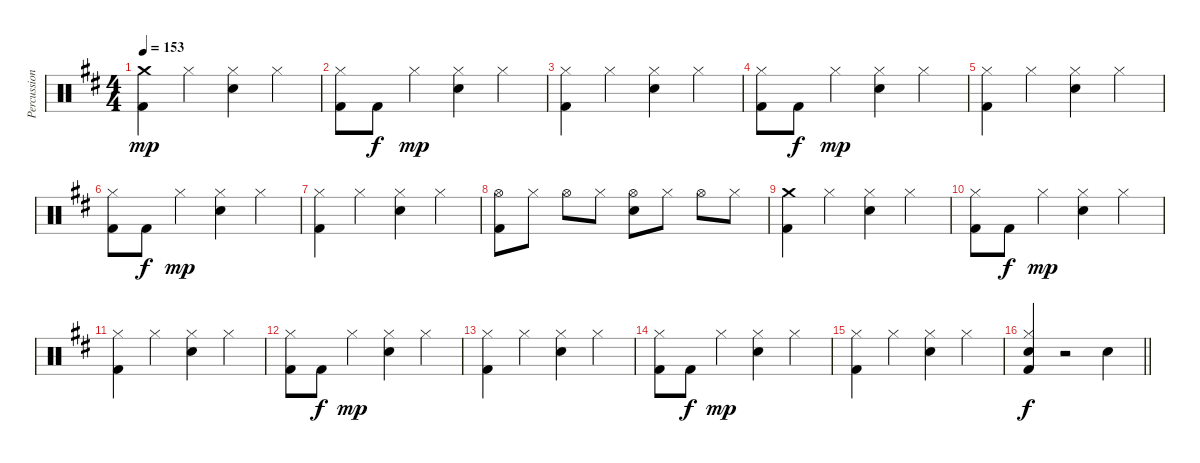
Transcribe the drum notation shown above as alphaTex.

\track ("Percussion" "Percussion") {instrument percussion}
\staff {score}
\articulation defaults
\ts (4 4)
\tempo 153
\clef neutral
\ks bminor
("Kick (hit) 2" "Crash medium (hit)").4{dy mp} "Hi-Hat (closed)".4 ("Electric Snare (hit)" "Hi-Hat (closed)").4 "Hi-Hat (closed)".4 |
("Kick (hit) 2" "Hi-Hat (closed)").8 "Kick (hit) 2".8{dy f} "Hi-Hat (closed)".4{dy mp} ("Electric Snare (hit)" "Hi-Hat (closed)").4 "Hi-Hat (closed)".4 |
("Kick (hit) 2" "Hi-Hat (closed)").4 "Hi-Hat (closed)".4 ("Electric Snare (hit)" "Hi-Hat (closed)").4 "Hi-Hat (closed)".4 |
("Kick (hit) 2" "Hi-Hat (closed)").8 "Kick (hit) 2".8{dy f} "Hi-Hat (closed)".4{dy mp} ("Electric Snare (hit)" "Hi-Hat (closed)").4 "Hi-Hat (closed)".4 |
("Kick (hit) 2" "Hi-Hat (closed)").4 "Hi-Hat (closed)".4 ("Electric Snare (hit)" "Hi-Hat (closed)").4 "Hi-Hat (closed)".4 |
("Kick (hit) 2" "Hi-Hat (closed)").8 "Kick (hit) 2".8{dy f} "Hi-Hat (closed)".4{dy mp} ("Electric Snare (hit)" "Hi-Hat (closed)").4 "Hi-Hat (closed)".4 |
("Kick (hit) 2" "Hi-Hat (closed)").4 "Hi-Hat (closed)".4 ("Electric Snare (hit)" "Hi-Hat (closed)").4 "Hi-Hat (closed)".4 |
("Hi-Hat (open)" "Kick (hit) 2").8 "Hi-Hat (closed)".8 "Hi-Hat (open)".8 "Hi-Hat (closed)".8 ("Hi-Hat (open)" "Electric Snare (hit)").8 "Hi-Hat (closed)".8 "Hi-Hat (open)".8 "Hi-Hat (closed)".8 |
("Kick (hit) 2" "Crash medium (hit)").4 "Hi-Hat (closed)".4 ("Electric Snare (hit)" "Hi-Hat (closed)").4 "Hi-Hat (closed)".4 |
("Kick (hit) 2" "Hi-Hat (closed)").8 "Kick (hit) 2".8{dy f} "Hi-Hat (closed)".4{dy mp} ("Electric Snare (hit)" "Hi-Hat (closed)").4 "Hi-Hat (closed)".4 |
("Kick (hit) 2" "Hi-Hat (closed)").4 "Hi-Hat (closed)".4 ("Electric Snare (hit)" "Hi-Hat (closed)").4 "Hi-Hat (closed)".4 |
("Kick (hit) 2" "Hi-Hat (closed)").8 "Kick (hit) 2".8{dy f} "Hi-Hat (closed)".4{dy mp} ("Electric Snare (hit)" "Hi-Hat (closed)").4 "Hi-Hat (closed)".4 |
("Kick (hit) 2" "Hi-Hat (closed)").4 "Hi-Hat (closed)".4 ("Electric Snare (hit)" "Hi-Hat (closed)").4 "Hi-Hat (closed)".4 |
("Kick (hit) 2" "Hi-Hat (closed)").8 "Kick (hit) 2".8{dy f} "Hi-Hat (closed)".4{dy mp} ("Electric Snare (hit)" "Hi-Hat (closed)").4 "Hi-Hat (closed)".4 |
("Kick (hit) 2" "Hi-Hat (closed)").4 "Hi-Hat (closed)".4 ("Electric Snare (hit)" "Hi-Hat (closed)").4 "Hi-Hat (closed)".4 |
\barLineRight lightlight
("Kick (hit) 2" "Electric Snare (hit)" "Hi-Hat (closed)").4{dy f} r.2 "Electric Snare (hit)".4
